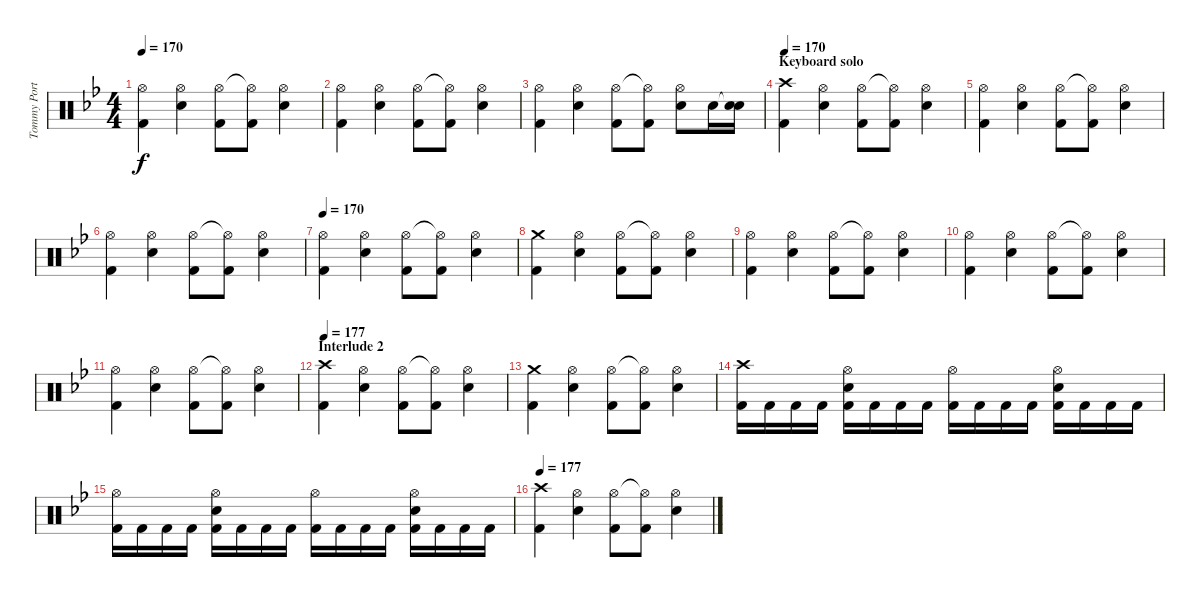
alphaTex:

\track ("Tommy Portimo" "Tommy Port") {instrument percussion}
\staff {score}
\articulation defaults
\ts (4 4)
\tempo 170
\clef neutral
\ks gminor
("Hi-Hat (open)" "Kick (hit) 2").4{dy f} ("Hi-Hat (open)" "Snare (hit) 2").4 ("Hi-Hat (open)" "Kick (hit) 2").8 ("Hi-Hat (open)"{t} "Kick (hit) 2").8 ("Hi-Hat (open)" "Snare (hit) 2").4 |
("Hi-Hat (open)" "Kick (hit) 2").4 ("Hi-Hat (open)" "Snare (hit) 2").4 ("Hi-Hat (open)" "Kick (hit) 2").8 ("Hi-Hat (open)"{t} "Kick (hit) 2").8 ("Hi-Hat (open)" "Snare (hit) 2").4 |
("Hi-Hat (open)" "Kick (hit) 2").4 ("Hi-Hat (open)" "Snare (hit) 2").4 ("Hi-Hat (open)" "Kick (hit) 2").8 ("Hi-Hat (open)"{t} "Kick (hit) 2").8 ("Hi-Hat (open)" "Snare (hit) 2").8 "Snare (hit) 2".16 ("Snare (hit)"{t} "Snare (hit) 2").16 |
\section ("" "Keyboard solo")
\tempo 170
("Crash high (hit)" "Kick (hit) 2").4 ("Hi-Hat (open)" "Snare (hit) 2").4 ("Hi-Hat (open)" "Kick (hit) 2").8 ("Hi-Hat (open)"{t} "Kick (hit) 2").8 ("Hi-Hat (open)" "Snare (hit) 2").4 |
("Hi-Hat (open)" "Kick (hit) 2").4 ("Hi-Hat (open)" "Snare (hit) 2").4 ("Hi-Hat (open)" "Kick (hit) 2").8 ("Hi-Hat (open)"{t} "Kick (hit) 2").8 ("Hi-Hat (open)" "Snare (hit) 2").4 |
("Hi-Hat (open)" "Kick (hit) 2").4 ("Hi-Hat (open)" "Snare (hit) 2").4 ("Hi-Hat (open)" "Kick (hit) 2").8 ("Hi-Hat (open)"{t} "Kick (hit) 2").8 ("Hi-Hat (open)" "Snare (hit) 2").4 |
\tempo 170
("Hi-Hat (open)" "Kick (hit) 2").4 ("Hi-Hat (open)" "Snare (hit) 2").4 ("Hi-Hat (open)" "Kick (hit) 2").8 ("Hi-Hat (open)"{t} "Kick (hit) 2").8 ("Hi-Hat (open)" "Snare (hit) 2").4 |
("Crash medium (hit)" "Kick (hit) 2").4 ("Hi-Hat (open)" "Snare (hit) 2").4 ("Hi-Hat (open)" "Kick (hit) 2").8 ("Hi-Hat (open)"{t} "Kick (hit) 2").8 ("Hi-Hat (open)" "Snare (hit) 2").4 |
("Hi-Hat (open)" "Kick (hit) 2").4 ("Hi-Hat (open)" "Snare (hit) 2").4 ("Hi-Hat (open)" "Kick (hit) 2").8 ("Hi-Hat (open)"{t} "Kick (hit) 2").8 ("Hi-Hat (open)" "Snare (hit) 2").4 |
("Hi-Hat (open)" "Kick (hit) 2").4 ("Hi-Hat (open)" "Snare (hit) 2").4 ("Hi-Hat (open)" "Kick (hit) 2").8 ("Hi-Hat (open)"{t} "Kick (hit) 2").8 ("Hi-Hat (open)" "Snare (hit) 2").4 |
("Hi-Hat (open)" "Kick (hit) 2").4 ("Hi-Hat (open)" "Snare (hit) 2").4 ("Hi-Hat (open)" "Kick (hit) 2").8 ("Hi-Hat (open)"{t} "Kick (hit) 2").8 ("Hi-Hat (open)" "Snare (hit) 2").4 |
\section ("" "Interlude 2")
\tempo 177
("Crash high (hit)" "Kick (hit) 2").4 ("Hi-Hat (open)" "Snare (hit) 2").4 ("Hi-Hat (open)" "Kick (hit) 2").8 ("Hi-Hat (open)"{t} "Kick (hit) 2").8 ("Hi-Hat (open)" "Snare (hit) 2").4 |
("Crash medium (hit)" "Kick (hit) 2").4 ("Hi-Hat (open)" "Snare (hit) 2").4 ("Hi-Hat (open)" "Kick (hit) 2").8 ("Hi-Hat (open)"{t} "Kick (hit) 2").8 ("Hi-Hat (open)" "Snare (hit) 2").4 |
("Crash high (hit)" "Kick (hit) 2").16 "Kick (hit) 2".16 "Kick (hit) 2".16 "Kick (hit) 2".16 ("Hi-Hat (open)" "Snare (hit) 2" "Kick (hit) 2").16 "Kick (hit) 2".16 "Kick (hit) 2".16 "Kick (hit) 2".16 ("Hi-Hat (open)" "Kick (hit) 2").16 "Kick (hit) 2".16 "Kick (hit) 2".16 "Kick (hit) 2".16 ("Hi-Hat (open)" "Snare (hit) 2" "Kick (hit) 2").16 "Kick (hit) 2".16 "Kick (hit) 2".16 "Kick (hit) 2".16 |
("Hi-Hat (open)" "Kick (hit) 2").16 "Kick (hit) 2".16 "Kick (hit) 2".16 "Kick (hit) 2".16 ("Hi-Hat (open)" "Snare (hit) 2" "Kick (hit) 2").16 "Kick (hit) 2".16 "Kick (hit) 2".16 "Kick (hit) 2".16 ("Hi-Hat (open)" "Kick (hit) 2").16 "Kick (hit) 2".16 "Kick (hit) 2".16 "Kick (hit) 2".16 ("Hi-Hat (open)" "Snare (hit) 2" "Kick (hit) 2").16 "Kick (hit) 2".16 "Kick (hit) 2".16 "Kick (hit) 2".16 |
\tempo 177
("Crash high (hit)" "Kick (hit) 2").4 ("Hi-Hat (open)" "Snare (hit) 2").4 ("Hi-Hat (open)" "Kick (hit) 2").8 ("Hi-Hat (open)"{t} "Kick (hit) 2").8 ("Hi-Hat (open)" "Snare (hit) 2").4
